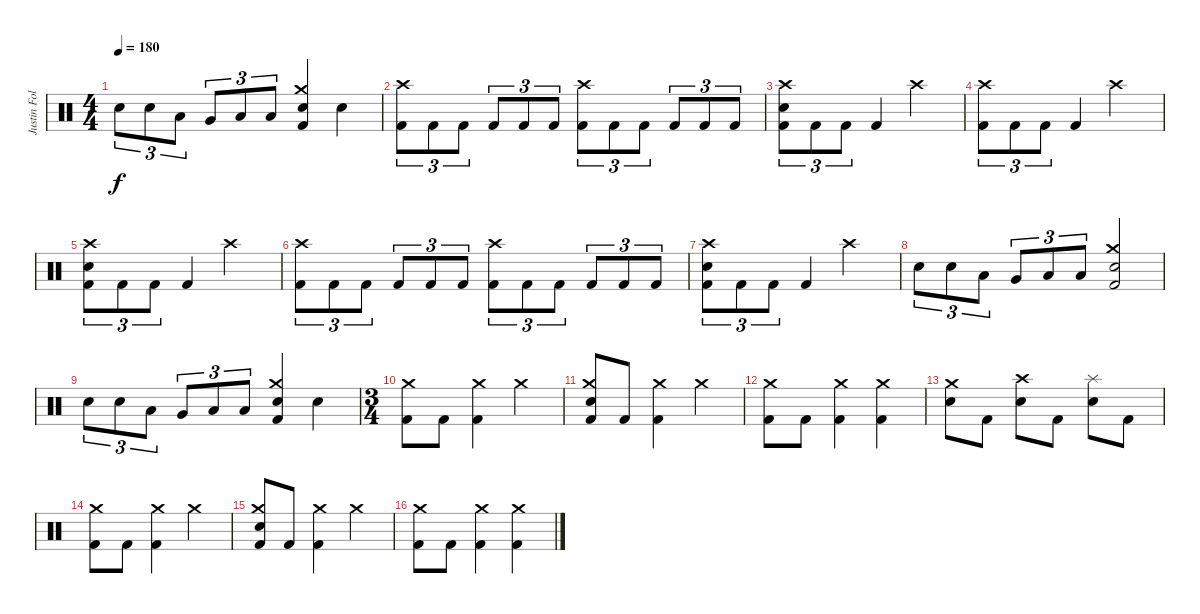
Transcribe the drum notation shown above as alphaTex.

\track ("Justin Foley" "Justin Fol") {instrument percussion}
\staff {score}
\articulation defaults
\ts (4 4)
\tempo 180
\clef neutral
\ks c "Electric Snare (hit)".8{tu (3 2) dy f} "Electric Snare (hit)".8{tu (3 2)} "Low Tom (hit)".8{tu (3 2)} "Very Low Tom (hit)".8{tu (3 2)} "Low Floor Tom (hit)".8{tu (3 2)} "Low Floor Tom (hit)".8{tu (3 2)}
("Crash medium (hit)" "Electric Snare (hit)" "Kick (hit) 2").4 "Electric Snare (hit)".4 |
("Crash high (hit)" "Kick (hit) 2").8{tu (3 2)} "Kick (hit) 2".8{tu (3 2)} "Kick (hit) 2".8{tu (3 2)} "Kick (hit) 2".8{tu (3 2)} "Kick (hit) 2".8{tu (3 2)} "Kick (hit) 2".8{tu (3 2)} ("Crash high (hit)" "Kick (hit) 2").8{tu (3 2)} "Kick (hit) 2".8{tu (3 2)} "Kick (hit) 2".8{tu (3 2)} "Kick (hit) 2".8{tu (3 2)} "Kick (hit) 2".8{tu (3 2)} "Kick (hit) 2".8{tu (3 2)} |
("Crash high (hit)" "Electric Snare (hit)" "Kick (hit) 2").8{tu (3 2)} "Kick (hit) 2".8{tu (3 2)} "Kick (hit) 2".8{tu (3 2)} "Kick (hit) 2".4 "Crash high (hit)".2 |
("Crash high (hit)" "Kick (hit) 2").8{tu (3 2)} "Kick (hit) 2".8{tu (3 2)} "Kick (hit) 2".8{tu (3 2)} "Kick (hit) 2".4 "Crash high (hit)".2 |
("Crash high (hit)" "Electric Snare (hit)" "Kick (hit) 2").8{tu (3 2)} "Kick (hit) 2".8{tu (3 2)} "Kick (hit) 2".8{tu (3 2)} "Kick (hit) 2".4 "Crash high (hit)".2 |
("Crash high (hit)" "Kick (hit) 2").8{tu (3 2)} "Kick (hit) 2".8{tu (3 2)} "Kick (hit) 2".8{tu (3 2)} "Kick (hit) 2".8{tu (3 2)} "Kick (hit) 2".8{tu (3 2)} "Kick (hit) 2".8{tu (3 2)} ("Crash high (hit)" "Kick (hit) 2").8{tu (3 2)} "Kick (hit) 2".8{tu (3 2)} "Kick (hit) 2".8{tu (3 2)} "Kick (hit) 2".8{tu (3 2)} "Kick (hit) 2".8{tu (3 2)} "Kick (hit) 2".8{tu (3 2)} |
("Crash high (hit)" "Electric Snare (hit)" "Kick (hit) 2").8{tu (3 2)} "Kick (hit) 2".8{tu (3 2)} "Kick (hit) 2".8{tu (3 2)} "Kick (hit) 2".4 "Crash high (hit)".2 |
"Electric Snare (hit)".8{tu (3 2)} "Electric Snare (hit)".8{tu (3 2)} "Low Tom (hit)".8{tu (3 2)} "Very Low Tom (hit)".8{tu (3 2)} "Low Floor Tom (hit)".8{tu (3 2)} "Low Floor Tom (hit)".8{tu (3 2)} ("Crash medium (hit)" "Electric Snare (hit)" "Kick (hit) 2").2 |
"Electric Snare (hit)".8{tu (3 2)} "Electric Snare (hit)".8{tu (3 2)} "Low Tom (hit)".8{tu (3 2)} "Very Low Tom (hit)".8{tu (3 2)} "Low Floor Tom (hit)".8{tu (3 2)} "Low Floor Tom (hit)".8{tu (3 2)} ("Crash medium (hit)" "Electric Snare (hit)" "Kick (hit) 2").4 "Electric Snare (hit)".4 |
\ts (3 4)
("Crash medium (hit)" "Kick (hit) 2").8 "Kick (hit) 2".8 ("Crash medium (hit)" "Kick (hit) 2").4 "Crash medium (hit)".4 |
("Crash medium (hit)" "Electric Snare (hit)" "Kick (hit) 2").8 "Kick (hit) 2".8 ("Crash medium (hit)" "Kick (hit) 2").4 "Crash medium (hit)".4 |
("Crash medium (hit)" "Kick (hit) 2").8 "Kick (hit) 2".8 ("Crash medium (hit)" "Kick (hit) 2").4 ("Crash medium (hit)" "Kick (hit) 2").4 |
("Crash medium (hit)" "Electric Snare (hit)").8 "Kick (hit) 2".8 ("Crash high (hit)" "Electric Snare (hit)").8 "Kick (hit) 2".8 ("Splash (hit)" "Electric Snare (hit)").8 "Kick (hit) 2".8 |
("Crash medium (hit)" "Kick (hit) 2").8 "Kick (hit) 2".8 ("Crash medium (hit)" "Kick (hit) 2").4 "Crash medium (hit)".4 |
("Crash medium (hit)" "Electric Snare (hit)" "Kick (hit) 2").8 "Kick (hit) 2".8 ("Crash medium (hit)" "Kick (hit) 2").4 "Crash medium (hit)".4 |
("Crash medium (hit)" "Kick (hit) 2").8 "Kick (hit) 2".8 ("Crash medium (hit)" "Kick (hit) 2").4 ("Crash medium (hit)" "Kick (hit) 2").4
